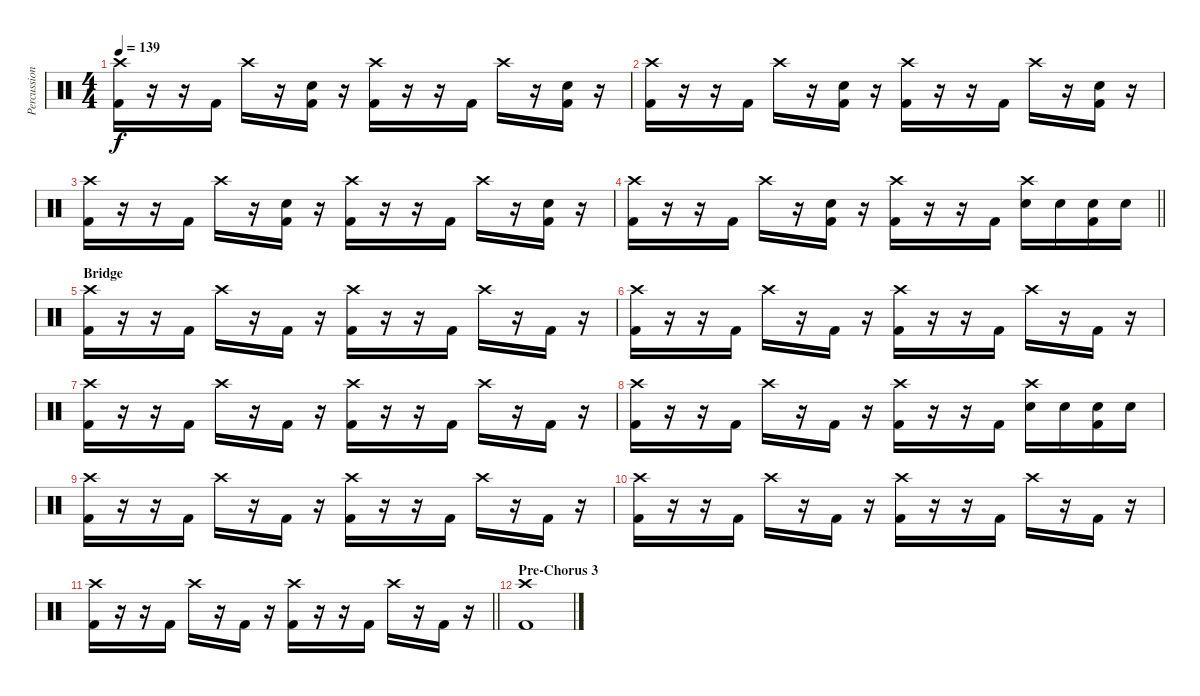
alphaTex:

\track ("Percussion" "Percussion") {instrument percussion}
\staff {score}
\articulation defaults
\ts (4 4)
\tempo 139
\clef neutral
\ks c
("Crash high (hit)" "Kick (hit) 2").16{dy f} r.16 r.16 "Kick (hit) 2".16 "Crash high (hit)".16 r.16 ("Snare (hit) 2" "Kick (hit) 2").16 r.16 ("Crash high (hit)" "Kick (hit) 2").16 r.16 r.16 "Kick (hit) 2".16 "Crash high (hit)".16 r.16 ("Snare (hit) 2" "Kick (hit) 2").16 r.16 |
("Crash high (hit)" "Kick (hit) 2").16 r.16 r.16 "Kick (hit) 2".16 "Crash high (hit)".16 r.16 ("Snare (hit) 2" "Kick (hit) 2").16 r.16 ("Crash high (hit)" "Kick (hit) 2").16 r.16 r.16 "Kick (hit) 2".16 "Crash high (hit)".16 r.16 ("Snare (hit) 2" "Kick (hit) 2").16 r.16 |
("Crash high (hit)" "Kick (hit) 2").16 r.16 r.16 "Kick (hit) 2".16 "Crash high (hit)".16 r.16 ("Snare (hit) 2" "Kick (hit) 2").16 r.16 ("Crash high (hit)" "Kick (hit) 2").16 r.16 r.16 "Kick (hit) 2".16 "Crash high (hit)".16 r.16 ("Snare (hit) 2" "Kick (hit) 2").16 r.16 |
\barLineRight lightlight
("Crash high (hit)" "Kick (hit) 2").16 r.16 r.16 "Kick (hit) 2".16 "Crash high (hit)".16 r.16 ("Snare (hit) 2" "Kick (hit) 2").16 r.16 ("Crash high (hit)" "Kick (hit) 2").16 r.16 r.16 "Kick (hit) 2".16 ("Crash high (hit)" "Snare (hit) 2").16 "Snare (hit) 2".16 ("Snare (hit) 2" "Kick (hit) 2").16 "Snare (hit) 2".16 |
\section ("" "Bridge")
("Crash high (hit)" "Kick (hit) 2").16 r.16 r.16 "Kick (hit) 2".16 "Crash high (hit)".16 r.16 "Kick (hit) 2".16 r.16 ("Crash high (hit)" "Kick (hit) 2").16 r.16 r.16 "Kick (hit) 2".16 "Crash high (hit)".16 r.16 "Kick (hit) 2".16 r.16 |
("Crash high (hit)" "Kick (hit) 2").16 r.16 r.16 "Kick (hit) 2".16 "Crash high (hit)".16 r.16 "Kick (hit) 2".16 r.16 ("Crash high (hit)" "Kick (hit) 2").16 r.16 r.16 "Kick (hit) 2".16 "Crash high (hit)".16 r.16 "Kick (hit) 2".16 r.16 |
("Crash high (hit)" "Kick (hit) 2").16 r.16 r.16 "Kick (hit) 2".16 "Crash high (hit)".16 r.16 "Kick (hit) 2".16 r.16 ("Crash high (hit)" "Kick (hit) 2").16 r.16 r.16 "Kick (hit) 2".16 "Crash high (hit)".16 r.16 "Kick (hit) 2".16 r.16 |
("Crash high (hit)" "Kick (hit) 2").16 r.16 r.16 "Kick (hit) 2".16 "Crash high (hit)".16 r.16 "Kick (hit) 2".16 r.16 ("Crash high (hit)" "Kick (hit) 2").16 r.16 r.16 "Kick (hit) 2".16 ("Crash high (hit)" "Snare (hit) 2").16 "Snare (hit) 2".16 ("Snare (hit) 2" "Kick (hit) 2").16 "Snare (hit) 2".16 |
("Crash high (hit)" "Kick (hit) 2").16 r.16 r.16 "Kick (hit) 2".16 "Crash high (hit)".16 r.16 "Kick (hit) 2".16 r.16 ("Crash high (hit)" "Kick (hit) 2").16 r.16 r.16 "Kick (hit) 2".16 "Crash high (hit)".16 r.16 "Kick (hit) 2".16 r.16 |
("Crash high (hit)" "Kick (hit) 2").16 r.16 r.16 "Kick (hit) 2".16 "Crash high (hit)".16 r.16 "Kick (hit) 2".16 r.16 ("Crash high (hit)" "Kick (hit) 2").16 r.16 r.16 "Kick (hit) 2".16 "Crash high (hit)".16 r.16 "Kick (hit) 2".16 r.16 |
\barLineRight lightlight
("Crash high (hit)" "Kick (hit) 2").16 r.16 r.16 "Kick (hit) 2".16 "Crash high (hit)".16 r.16 "Kick (hit) 2".16 r.16 ("Crash high (hit)" "Kick (hit) 2").16 r.16 r.16 "Kick (hit) 2".16 "Crash high (hit)".16 r.16 "Kick (hit) 2".16 r.16 |
\section ("" "Pre-Chorus 3")
("Crash high (hit)" "Kick (hit) 2").1
